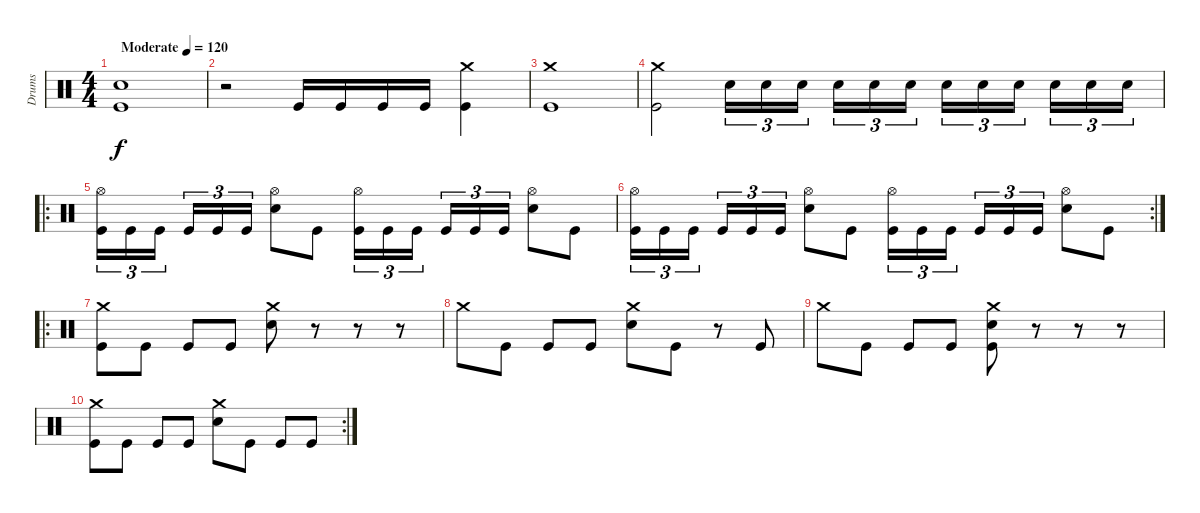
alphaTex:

\track ("Drums" "Drums") {instrument percussion}
\staff {score}
\articulation defaults
\ts (4 4)
\tempo (120 "Moderate")
\clef neutral
\ks c
("Snare (hit) 2" "Kick (hit)").1{dy f} |
r.2 "Kick (hit)".16 "Kick (hit)".16 "Kick (hit)".16 "Kick (hit)".16 ("Crash medium (hit)" "Kick (hit)").4 |
("Crash medium (hit)" "Kick (hit)").1 |
("Crash medium (hit)" "Kick (hit)").2 "Snare (hit) 2".16{tu (3 2)} "Snare (hit) 2".16{tu (3 2)} "Snare (hit) 2".16{tu (3 2) beam splitsecondary} "Snare (hit) 2".16{tu (3 2)} "Snare (hit) 2".16{tu (3 2)} "Snare (hit) 2".16{tu (3 2)} "Snare (hit) 2".16{tu (3 2)} "Snare (hit) 2".16{tu (3 2)} "Snare (hit) 2".16{tu (3 2) beam splitsecondary} "Snare (hit) 2".16{tu (3 2)} "Snare (hit) 2".16{tu (3 2)} "Snare (hit) 2".16{tu (3 2)} |
\ro
("Hi-Hat (open)" "Kick (hit)").16{tu (3 2)} "Kick (hit)".16{tu (3 2)} "Kick (hit)".16{tu (3 2) beam splitsecondary} "Kick (hit)".16{tu (3 2)} "Kick (hit)".16{tu (3 2)} "Kick (hit)".16{tu (3 2)} ("Hi-Hat (open)" "Snare (hit) 2").8 "Kick (hit)".8 ("Hi-Hat (open)" "Kick (hit)").16{tu (3 2)} "Kick (hit)".16{tu (3 2)} "Kick (hit)".16{tu (3 2) beam splitsecondary} "Kick (hit)".16{tu (3 2)} "Kick (hit)".16{tu (3 2)} "Kick (hit)".16{tu (3 2)} ("Hi-Hat (open)" "Snare (hit) 2").8 "Kick (hit)".8 |
\rc 2
("Hi-Hat (open)" "Kick (hit)").16{tu (3 2)} "Kick (hit)".16{tu (3 2)} "Kick (hit)".16{tu (3 2) beam splitsecondary} "Kick (hit)".16{tu (3 2)} "Kick (hit)".16{tu (3 2)} "Kick (hit)".16{tu (3 2)} ("Hi-Hat (open)" "Snare (hit) 2").8 "Kick (hit)".8 ("Hi-Hat (open)" "Kick (hit)").16{tu (3 2)} "Kick (hit)".16{tu (3 2)} "Kick (hit)".16{tu (3 2) beam splitsecondary} "Kick (hit)".16{tu (3 2)} "Kick (hit)".16{tu (3 2)} "Kick (hit)".16{tu (3 2)} ("Hi-Hat (open)" "Snare (hit) 2").8 "Kick (hit)".8 |
\ro
("Crash medium (hit)" "Kick (hit)").8 "Kick (hit)".8 "Kick (hit)".8 "Kick (hit)".8 ("Crash medium (hit)" "Snare (hit) 2").8 r.8 r.8 r.8 |
"Crash medium (hit)".8 "Kick (hit)".8 "Kick (hit)".8 "Kick (hit)".8 ("Crash medium (hit)" "Snare (hit) 2").8 "Kick (hit)".8 r.8 "Kick (hit)".8 |
"Crash medium (hit)".8 "Kick (hit)".8 "Kick (hit)".8 "Kick (hit)".8 ("Crash medium (hit)" "Snare (hit) 2" "Kick (hit)").8 r.8 r.8 r.8 |
\rc 2
("Crash medium (hit)" "Kick (hit)").8 "Kick (hit)".8 "Kick (hit)".8 "Kick (hit)".8 ("Crash medium (hit)" "Snare (hit) 2").8 "Kick (hit)".8 "Kick (hit)".8 "Kick (hit)".8
